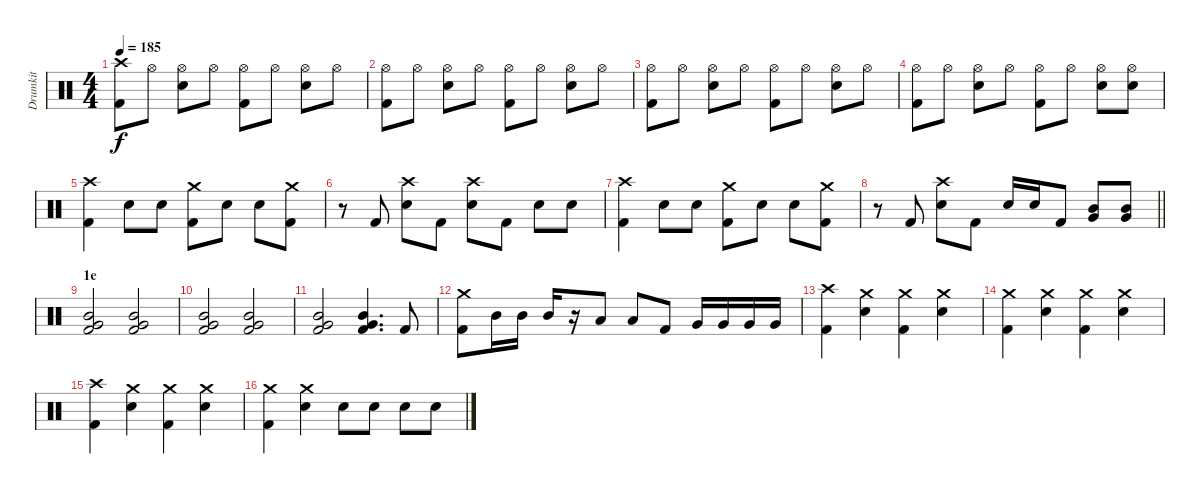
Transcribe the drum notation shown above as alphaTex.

\track ("Drumkit" "Drumkit") {instrument percussion}
\staff {score}
\articulation defaults
\ts (4 4)
\tempo 185
\clef neutral
\ks c
("Crash high (hit)" "Kick (hit) 2").8{dy f} "Hi-Hat (open)".8 ("Hi-Hat (open)" "Electric Snare (hit)").8 "Hi-Hat (open)".8 ("Hi-Hat (open)" "Kick (hit) 2").8 "Hi-Hat (open)".8 ("Hi-Hat (open)" "Electric Snare (hit)").8 "Hi-Hat (open)".8 |
("Hi-Hat (open)" "Kick (hit) 2").8 "Hi-Hat (open)".8 ("Hi-Hat (open)" "Electric Snare (hit)").8 "Hi-Hat (open)".8 ("Hi-Hat (open)" "Kick (hit) 2").8 "Hi-Hat (open)".8 ("Hi-Hat (open)" "Electric Snare (hit)").8 "Hi-Hat (open)".8 |
("Hi-Hat (open)" "Kick (hit) 2").8 "Hi-Hat (open)".8 ("Hi-Hat (open)" "Electric Snare (hit)").8 "Hi-Hat (open)".8 ("Hi-Hat (open)" "Kick (hit) 2").8 "Hi-Hat (open)".8 ("Hi-Hat (open)" "Electric Snare (hit)").8 "Hi-Hat (open)".8 |
("Hi-Hat (open)" "Kick (hit) 2").8 "Hi-Hat (open)".8 ("Hi-Hat (open)" "Electric Snare (hit)").8 "Hi-Hat (open)".8 ("Hi-Hat (open)" "Kick (hit) 2").8 "Hi-Hat (open)".8 ("Hi-Hat (open)" "Electric Snare (hit)").8 ("Hi-Hat (open)" "Electric Snare (hit)").8 |
("Crash high (hit)" "Kick (hit) 2").4 "Electric Snare (hit)".8 "Electric Snare (hit)".8 ("Crash medium (hit)" "Kick (hit) 2").8 "Electric Snare (hit)".8 "Electric Snare (hit)".8 ("Crash medium (hit)" "Kick (hit) 2").8 |
r.8 "Kick (hit) 2".8 ("Crash high (hit)" "Electric Snare (hit)").8 "Kick (hit) 2".8 ("Crash high (hit)" "Electric Snare (hit)").8 "Kick (hit) 2".8 "Electric Snare (hit)".8 "Electric Snare (hit)".8 |
("Crash high (hit)" "Kick (hit) 2").4 "Electric Snare (hit)".8 "Electric Snare (hit)".8 ("Crash medium (hit)" "Kick (hit) 2").8 "Electric Snare (hit)".8 "Electric Snare (hit)".8 ("Crash medium (hit)" "Kick (hit) 2").8 |
\barLineRight lightlight
r.8 "Kick (hit) 2".8 ("Crash high (hit)" "Electric Snare (hit)").8 "Kick (hit) 2".8 "Electric Snare (hit)".16 "Electric Snare (hit)".16 "Kick (hit) 2".8 ("Mid Tom (hit)" "Very Low Tom (hit)").8 ("Mid Tom (hit)" "Very Low Tom (hit)").8 |
\section ("" "1е")
("Mid Tom (hit)" "Very Low Tom (hit)" "Kick (hit) 2").2 ("Mid Tom (hit)" "Very Low Tom (hit)" "Kick (hit) 2").2 |
("Mid Tom (hit)" "Very Low Tom (hit)" "Kick (hit) 2").2 ("Mid Tom (hit)" "Very Low Tom (hit)" "Kick (hit) 2").2 |
("Mid Tom (hit)" "Very Low Tom (hit)" "Kick (hit) 2").2 ("Mid Tom (hit)" "Very Low Tom (hit)" "Kick (hit) 2").4{d} "Kick (hit) 2".8 |
("Crash medium (hit)" "Kick (hit) 2").8 "Mid Tom (hit)".16 "Mid Tom (hit)".16 "Mid Tom (hit)".16 r.16 "Low Tom (hit)".8 "Low Tom (hit)".8 "Kick (hit) 2".8 "Very Low Tom (hit)".16 "Very Low Tom (hit)".16 "Very Low Tom (hit)".16 "Very Low Tom (hit)".16 |
("Crash high (hit)" "Kick (hit) 2").4 ("Crash medium (hit)" "Electric Snare (hit)").4 ("Crash medium (hit)" "Kick (hit) 2").4 ("Crash medium (hit)" "Electric Snare (hit)").4 |
("Crash medium (hit)" "Kick (hit) 2").4 ("Crash medium (hit)" "Electric Snare (hit)").4 ("Crash medium (hit)" "Kick (hit) 2").4 ("Crash medium (hit)" "Electric Snare (hit)").4 |
("Crash high (hit)" "Kick (hit) 2").4 ("Crash medium (hit)" "Electric Snare (hit)").4 ("Crash medium (hit)" "Kick (hit) 2").4 ("Crash medium (hit)" "Electric Snare (hit)").4 |
("Crash medium (hit)" "Kick (hit) 2").4 ("Crash medium (hit)" "Electric Snare (hit)").4 "Electric Snare (hit)".8 "Electric Snare (hit)".8 "Electric Snare (hit)".8 "Electric Snare (hit)".8
